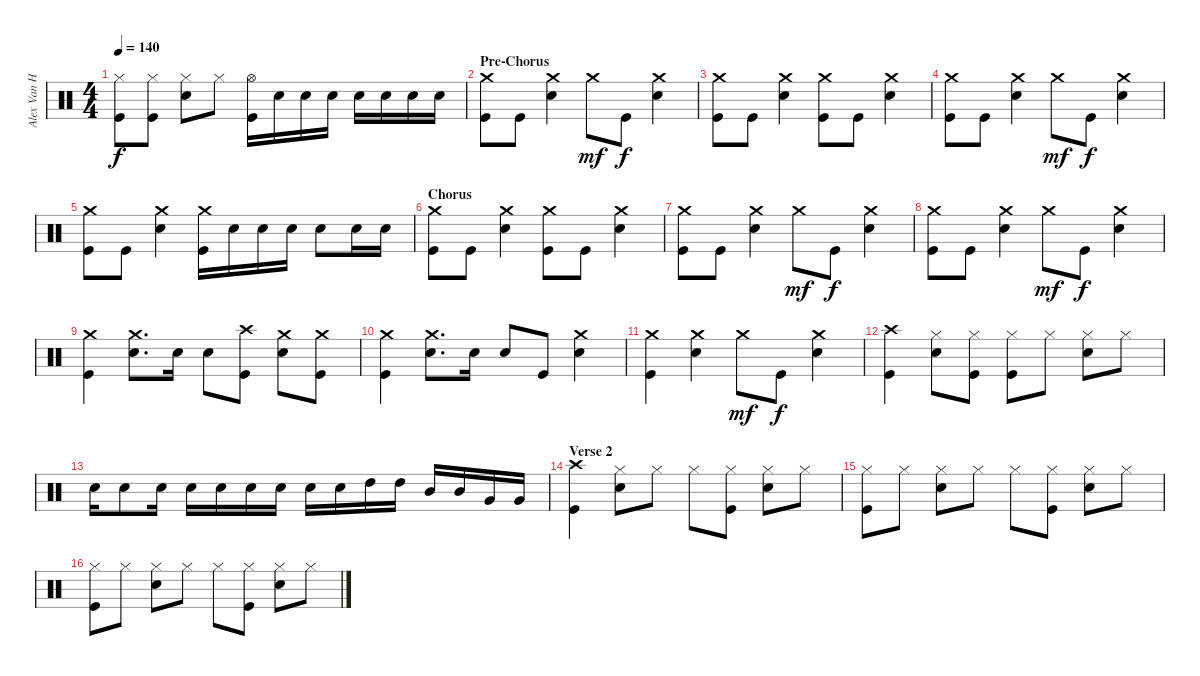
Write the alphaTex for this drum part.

\track ("Alex Van Halen (Drums)" "Alex Van H") {instrument percussion}
\staff {score}
\articulation defaults
\ts (4 4)
\tempo 140
\clef neutral
\ks c
("Hi-Hat (closed)" "Kick (hit)").8{dy f} ("Hi-Hat (closed)" "Kick (hit)").8 ("Hi-Hat (closed)" "Snare (hit) 2").8 "Hi-Hat (closed)".8 ("Hi-Hat (open)" "Kick (hit)").16 "Snare (hit) 2".16 "Snare (hit) 2".16 "Snare (hit) 2".16 "Snare (hit) 2".16 "Snare (hit) 2".16 "Snare (hit) 2".16 "Snare (hit) 2".16 |
\section ("" "Pre-Chorus")
("Crash medium (hit)" "Kick (hit)").8 "Kick (hit)".8 ("Crash medium (hit)" "Snare (hit) 2").4 "Crash medium (hit)".8{dy mf} "Kick (hit)".8{dy f} ("Crash medium (hit)" "Snare (hit) 2").4 |
("Crash medium (hit)" "Kick (hit)").8 "Kick (hit)".8 ("Crash medium (hit)" "Snare (hit) 2").4 ("Crash medium (hit)" "Kick (hit)").8 "Kick (hit)".8 ("Crash medium (hit)" "Snare (hit) 2").4 |
("Crash medium (hit)" "Kick (hit)").8 "Kick (hit)".8 ("Crash medium (hit)" "Snare (hit) 2").4 "Crash medium (hit)".8{dy mf} "Kick (hit)".8{dy f} ("Crash medium (hit)" "Snare (hit) 2").4 |
("Crash medium (hit)" "Kick (hit)").8 "Kick (hit)".8 ("Crash medium (hit)" "Snare (hit) 2").4 ("Crash medium (hit)" "Kick (hit)").16 "Snare (hit) 2".16 "Snare (hit) 2".16 "Snare (hit) 2".16 "Snare (hit) 2".8 "Snare (hit) 2".16 "Snare (hit) 2".16 |
\section ("" "Chorus")
("Crash medium (hit)" "Kick (hit)").8 "Kick (hit)".8 ("Crash medium (hit)" "Snare (hit) 2").4 ("Crash medium (hit)" "Kick (hit)").8 "Kick (hit)".8 ("Crash medium (hit)" "Snare (hit) 2").4 |
("Crash medium (hit)" "Kick (hit)").8 "Kick (hit)".8 ("Crash medium (hit)" "Snare (hit) 2").4 "Crash medium (hit)".8{dy mf} "Kick (hit)".8{dy f} ("Crash medium (hit)" "Snare (hit) 2").4 |
("Crash medium (hit)" "Kick (hit)").8 "Kick (hit)".8 ("Crash medium (hit)" "Snare (hit) 2").4 "Crash medium (hit)".8{dy mf} "Kick (hit)".8{dy f} ("Crash medium (hit)" "Snare (hit) 2").4 |
("Crash medium (hit)" "Kick (hit)").4 ("Crash medium (hit)" "Snare (hit) 2").8{d} "Snare (hit) 2".16 "Snare (hit) 2".8 ("Crash high (hit)" "Kick (hit)").8 ("Crash medium (hit)" "Snare (hit) 2").8 ("Crash medium (hit)" "Kick (hit)").8 |
("Crash medium (hit)" "Kick (hit)").4 ("Crash medium (hit)" "Snare (hit) 2").8{d} "Snare (hit) 2".16 "Snare (hit) 2".8 "Kick (hit)".8 ("Crash medium (hit)" "Snare (hit) 2").4 |
("Crash medium (hit)" "Kick (hit)").4 ("Crash medium (hit)" "Snare (hit) 2").4 "Crash medium (hit)".8{dy mf} "Kick (hit)".8{dy f} ("Crash medium (hit)" "Snare (hit) 2").4 |
("Crash high (hit)" "Kick (hit)").4 ("Hi-Hat (closed)" "Snare (hit) 2").8 ("Hi-Hat (closed)" "Kick (hit)").8 ("Hi-Hat (closed)" "Kick (hit)").8 "Hi-Hat (closed)".8 ("Hi-Hat (closed)" "Snare (hit) 2").8 "Hi-Hat (closed)".8 |
"Snare (hit) 2".16 "Snare (hit) 2".8 "Snare (hit) 2".16 "Snare (hit) 2".16 "Snare (hit) 2".16 "Snare (hit) 2".16 "Snare (hit) 2".16 "Snare (hit) 2".16 "Snare (hit) 2".16 "High Tom (hit)".16 "High Tom (hit)".16 "Mid Tom (hit)".16 "Mid Tom (hit)".16 "Very Low Tom (hit)".16 "Very Low Tom (hit)".16 |
\section ("" "Verse 2")
("Crash high (hit)" "Kick (hit)").4 ("Hi-Hat (closed)" "Snare (hit) 2").8 "Hi-Hat (closed)".8 "Hi-Hat (closed)".8 ("Hi-Hat (closed)" "Kick (hit)").8 ("Hi-Hat (closed)" "Snare (hit) 2").8 "Hi-Hat (closed)".8 |
("Hi-Hat (closed)" "Kick (hit)").8 "Hi-Hat (closed)".8 ("Hi-Hat (closed)" "Snare (hit) 2").8 "Hi-Hat (closed)".8 "Hi-Hat (closed)".8 ("Hi-Hat (closed)" "Kick (hit)").8 ("Hi-Hat (closed)" "Snare (hit) 2").8 "Hi-Hat (closed)".8 |
("Hi-Hat (closed)" "Kick (hit)").8 "Hi-Hat (closed)".8 ("Hi-Hat (closed)" "Snare (hit) 2").8 "Hi-Hat (closed)".8 "Hi-Hat (closed)".8 ("Hi-Hat (closed)" "Kick (hit)").8 ("Hi-Hat (closed)" "Snare (hit) 2").8 "Hi-Hat (closed)".8
